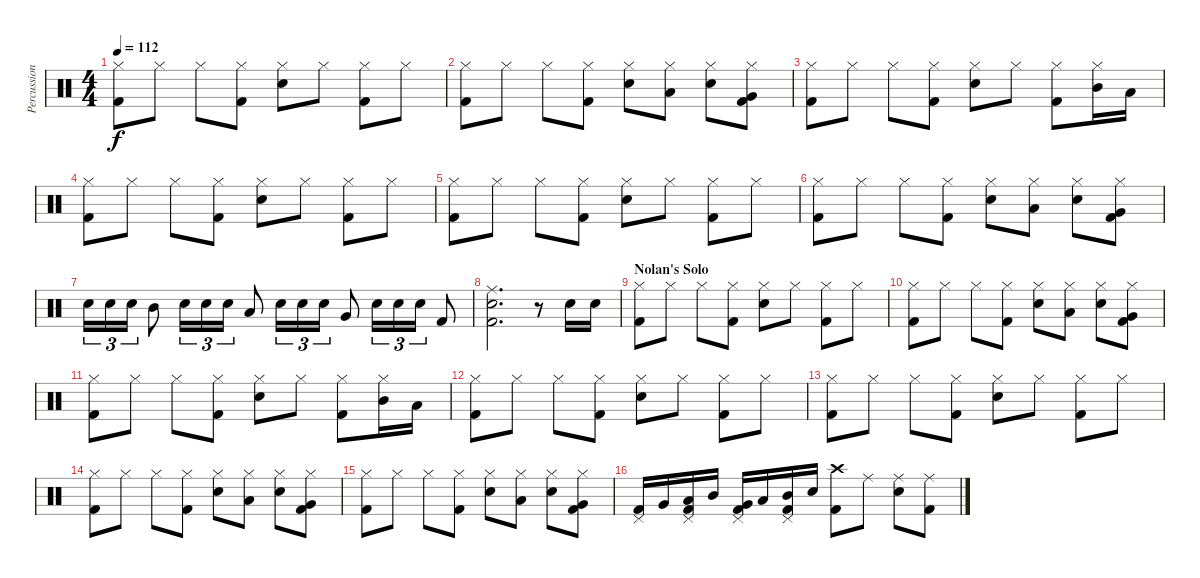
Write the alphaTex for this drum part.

\track ("Percussion" "Percussion") {instrument percussion}
\staff {score}
\articulation defaults
\ts (4 4)
\tempo 112
\clef neutral
\ks c
("Hi-Hat (closed)" "Kick (hit) 2").8{dy f} "Hi-Hat (closed)".8 "Hi-Hat (closed)".8 ("Hi-Hat (closed)" "Kick (hit) 2").8 ("Hi-Hat (closed)" "Snare (hit) 2").8 "Hi-Hat (closed)".8 ("Hi-Hat (closed)" "Kick (hit) 2").8 "Hi-Hat (closed)".8 |
("Hi-Hat (closed)" "Kick (hit) 2").8 "Hi-Hat (closed)".8 "Hi-Hat (closed)".8 ("Hi-Hat (closed)" "Kick (hit) 2").8 ("Hi-Hat (closed)" "Snare (hit) 2").8 ("Hi-Hat (closed)" "Low Tom (hit)").8 ("Hi-Hat (closed)" "Snare (hit) 2").8 ("Hi-Hat (closed)" "Very Low Tom (hit)" "Kick (hit) 2").8 |
("Hi-Hat (closed)" "Kick (hit) 2").8 "Hi-Hat (closed)".8 "Hi-Hat (closed)".8 ("Hi-Hat (closed)" "Kick (hit) 2").8 ("Hi-Hat (closed)" "Snare (hit) 2").8 "Hi-Hat (closed)".8 ("Hi-Hat (closed)" "Kick (hit) 2").8 ("Hi-Hat (closed)" "Mid Tom (hit)").16 "Low Tom (hit)".16 |
("Hi-Hat (closed)" "Kick (hit) 2").8 "Hi-Hat (closed)".8 "Hi-Hat (closed)".8 ("Hi-Hat (closed)" "Kick (hit) 2").8 ("Hi-Hat (closed)" "Snare (hit) 2").8 "Hi-Hat (closed)".8 ("Hi-Hat (closed)" "Kick (hit) 2").8 "Hi-Hat (closed)".8 |
("Hi-Hat (closed)" "Kick (hit) 2").8 "Hi-Hat (closed)".8 "Hi-Hat (closed)".8 ("Hi-Hat (closed)" "Kick (hit) 2").8 ("Hi-Hat (closed)" "Snare (hit) 2").8 "Hi-Hat (closed)".8 ("Hi-Hat (closed)" "Kick (hit) 2").8 "Hi-Hat (closed)".8 |
("Hi-Hat (closed)" "Kick (hit) 2").8 "Hi-Hat (closed)".8 "Hi-Hat (closed)".8 ("Hi-Hat (closed)" "Kick (hit) 2").8 ("Hi-Hat (closed)" "Snare (hit) 2").8 ("Hi-Hat (closed)" "Low Tom (hit)").8 ("Hi-Hat (closed)" "Snare (hit) 2").8 ("Hi-Hat (closed)" "Very Low Tom (hit)" "Kick (hit) 2").8 |
"Snare (hit) 2".16{tu (3 2)} "Snare (hit) 2".16{tu (3 2)} "Snare (hit) 2".16{tu (3 2)} "Mid Tom (hit)".8 "Snare (hit) 2".16{tu (3 2)} "Snare (hit) 2".16{tu (3 2)} "Snare (hit) 2".16{tu (3 2)} "Low Tom (hit)".8 "Snare (hit) 2".16{tu (3 2)} "Snare (hit) 2".16{tu (3 2)} "Snare (hit) 2".16{tu (3 2)} "Very Low Tom (hit)".8 "Snare (hit) 2".16{tu (3 2)} "Snare (hit) 2".16{tu (3 2)} "Snare (hit) 2".16{tu (3 2)} "Kick (hit) 2".8 |
("Ride (middle)" "Snare (hit) 2" "Kick (hit) 2").2{d} r.8 "Snare (hit) 2".16 "Snare (hit) 2".16 |
\section ("" "Nolan's Solo")
("Hi-Hat (closed)" "Kick (hit) 2").8 "Hi-Hat (closed)".8 "Hi-Hat (closed)".8 ("Hi-Hat (closed)" "Kick (hit) 2").8 ("Hi-Hat (closed)" "Snare (hit) 2").8 "Hi-Hat (closed)".8 ("Hi-Hat (closed)" "Kick (hit) 2").8 "Hi-Hat (closed)".8 |
("Hi-Hat (closed)" "Kick (hit) 2").8 "Hi-Hat (closed)".8 "Hi-Hat (closed)".8 ("Hi-Hat (closed)" "Kick (hit) 2").8 ("Hi-Hat (closed)" "Snare (hit) 2").8 ("Hi-Hat (closed)" "Low Tom (hit)").8 ("Hi-Hat (closed)" "Snare (hit) 2").8 ("Hi-Hat (closed)" "Very Low Tom (hit)" "Kick (hit) 2").8 |
("Hi-Hat (closed)" "Kick (hit) 2").8 "Hi-Hat (closed)".8 "Hi-Hat (closed)".8 ("Hi-Hat (closed)" "Kick (hit) 2").8 ("Hi-Hat (closed)" "Snare (hit) 2").8 "Hi-Hat (closed)".8 ("Hi-Hat (closed)" "Kick (hit) 2").8 ("Hi-Hat (closed)" "Mid Tom (hit)").16 "Low Tom (hit)".16 |
("Hi-Hat (closed)" "Kick (hit) 2").8 "Hi-Hat (closed)".8 "Hi-Hat (closed)".8 ("Hi-Hat (closed)" "Kick (hit) 2").8 ("Hi-Hat (closed)" "Snare (hit) 2").8 "Hi-Hat (closed)".8 ("Hi-Hat (closed)" "Kick (hit) 2").8 "Hi-Hat (closed)".8 |
("Hi-Hat (closed)" "Kick (hit) 2").8 "Hi-Hat (closed)".8 "Hi-Hat (closed)".8 ("Hi-Hat (closed)" "Kick (hit) 2").8 ("Hi-Hat (closed)" "Snare (hit) 2").8 "Hi-Hat (closed)".8 ("Hi-Hat (closed)" "Kick (hit) 2").8 "Hi-Hat (closed)".8 |
("Hi-Hat (closed)" "Kick (hit) 2").8 "Hi-Hat (closed)".8 "Hi-Hat (closed)".8 ("Hi-Hat (closed)" "Kick (hit) 2").8 ("Hi-Hat (closed)" "Snare (hit) 2").8 ("Hi-Hat (closed)" "Low Tom (hit)").8 ("Hi-Hat (closed)" "Snare (hit) 2").8 ("Hi-Hat (closed)" "Very Low Tom (hit)" "Kick (hit) 2").8 |
("Hi-Hat (closed)" "Kick (hit) 2").8 "Hi-Hat (closed)".8 "Hi-Hat (closed)".8 ("Hi-Hat (closed)" "Kick (hit) 2").8 ("Hi-Hat (closed)" "Snare (hit) 2").8 ("Hi-Hat (closed)" "Low Tom (hit)").8 ("Hi-Hat (closed)" "Snare (hit) 2").8 ("Hi-Hat (closed)" "Very Low Tom (hit)" "Kick (hit) 2").8 |
("Pedal Hi-Hat (hit)" "Kick (hit) 2").16 "Very Low Tom (hit)".16 ("Pedal Hi-Hat (hit)" "Low Tom (hit)" "Kick (hit) 2").16 "Mid Tom (hit)".16 ("Pedal Hi-Hat (hit)" "Very Low Tom (hit)" "Kick (hit) 2").16 "Low Tom (hit)".16 ("Pedal Hi-Hat (hit)" "Mid Tom (hit)" "Kick (hit) 2").16 "Snare (hit) 2".16 ("Crash high (hit)" "Kick (hit) 2").8 "Ride (middle)".8 ("Ride (middle)" "Snare (hit) 2").8 ("Ride (middle)" "Kick (hit) 2").8
